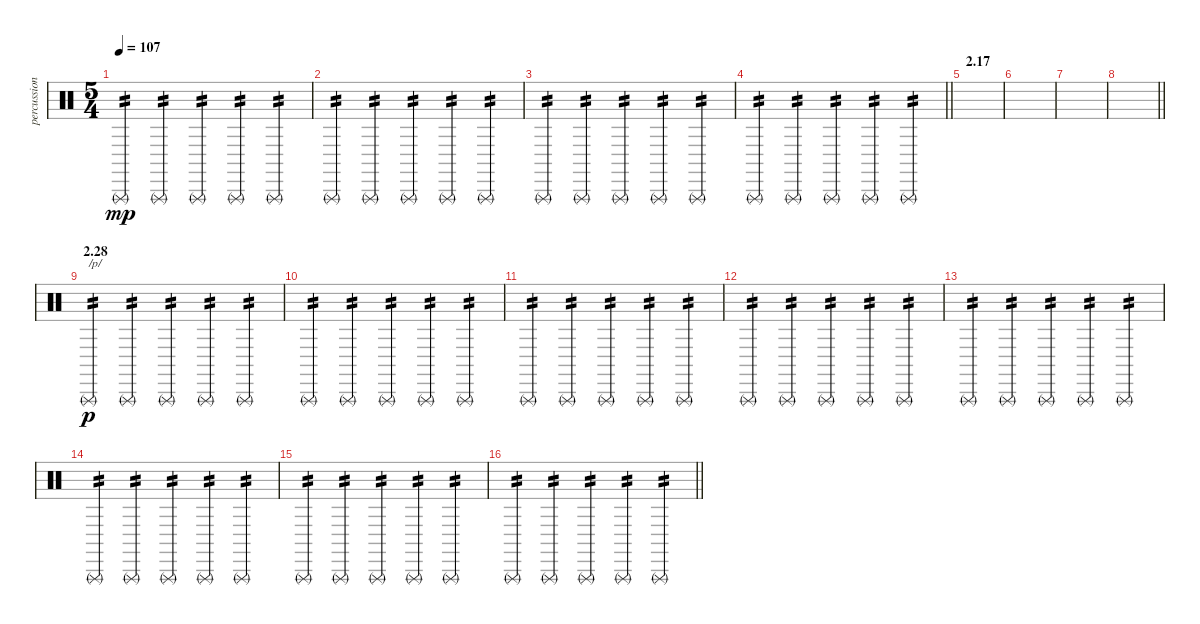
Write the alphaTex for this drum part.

\track ("percussion" "percussion") {instrument percussion}
\staff {score}
\articulation defaults
\ts (5 4)
\tempo 107
\clef neutral
\ks c "Triangle (rnute)".4{tp 2 dy mp} "Triangle (rnute)".4{tp 2} "Triangle (rnute)".4{tp 2} "Triangle (rnute)".4{tp 2} "Triangle (rnute)".4{tp 2}
|
"Triangle (rnute)".4{tp 2} "Triangle (rnute)".4{tp 2} "Triangle (rnute)".4{tp 2} "Triangle (rnute)".4{tp 2} "Triangle (rnute)".4{tp 2} |
"Triangle (rnute)".4{tp 2} "Triangle (rnute)".4{tp 2} "Triangle (rnute)".4{tp 2} "Triangle (rnute)".4{tp 2} "Triangle (rnute)".4{tp 2} |
\barLineRight lightlight "Triangle (rnute)".4{tp 2} "Triangle (rnute)".4{tp 2} "Triangle (rnute)".4{tp 2} "Triangle (rnute)".4{tp 2} "Triangle (rnute)".4{tp 2}
|
\section ("" "2.17")
|
|
|
\barLineRight lightlight
|
\section ("" "2.28")
"Triangle (rnute)".4{txt "/p/" tp 2 dy p} "Triangle (rnute)".4{tp 2} "Triangle (rnute)".4{tp 2} "Triangle (rnute)".4{tp 2} "Triangle (rnute)".4{tp 2} |
"Triangle (rnute)".4{tp 2} "Triangle (rnute)".4{tp 2} "Triangle (rnute)".4{tp 2} "Triangle (rnute)".4{tp 2} "Triangle (rnute)".4{tp 2} |
"Triangle (rnute)".4{tp 2} "Triangle (rnute)".4{tp 2} "Triangle (rnute)".4{tp 2} "Triangle (rnute)".4{tp 2} "Triangle (rnute)".4{tp 2} |
"Triangle (rnute)".4{tp 2} "Triangle (rnute)".4{tp 2} "Triangle (rnute)".4{tp 2} "Triangle (rnute)".4{tp 2} "Triangle (rnute)".4{tp 2} |
"Triangle (rnute)".4{tp 2} "Triangle (rnute)".4{tp 2} "Triangle (rnute)".4{tp 2} "Triangle (rnute)".4{tp 2} "Triangle (rnute)".4{tp 2} |
"Triangle (rnute)".4{tp 2} "Triangle (rnute)".4{tp 2} "Triangle (rnute)".4{tp 2} "Triangle (rnute)".4{tp 2} "Triangle (rnute)".4{tp 2} |
"Triangle (rnute)".4{tp 2} "Triangle (rnute)".4{tp 2} "Triangle (rnute)".4{tp 2} "Triangle (rnute)".4{tp 2} "Triangle (rnute)".4{tp 2} |
\barLineRight lightlight "Triangle (rnute)".4{tp 2} "Triangle (rnute)".4{tp 2} "Triangle (rnute)".4{tp 2} "Triangle (rnute)".4{tp 2} "Triangle (rnute)".4{tp 2}
